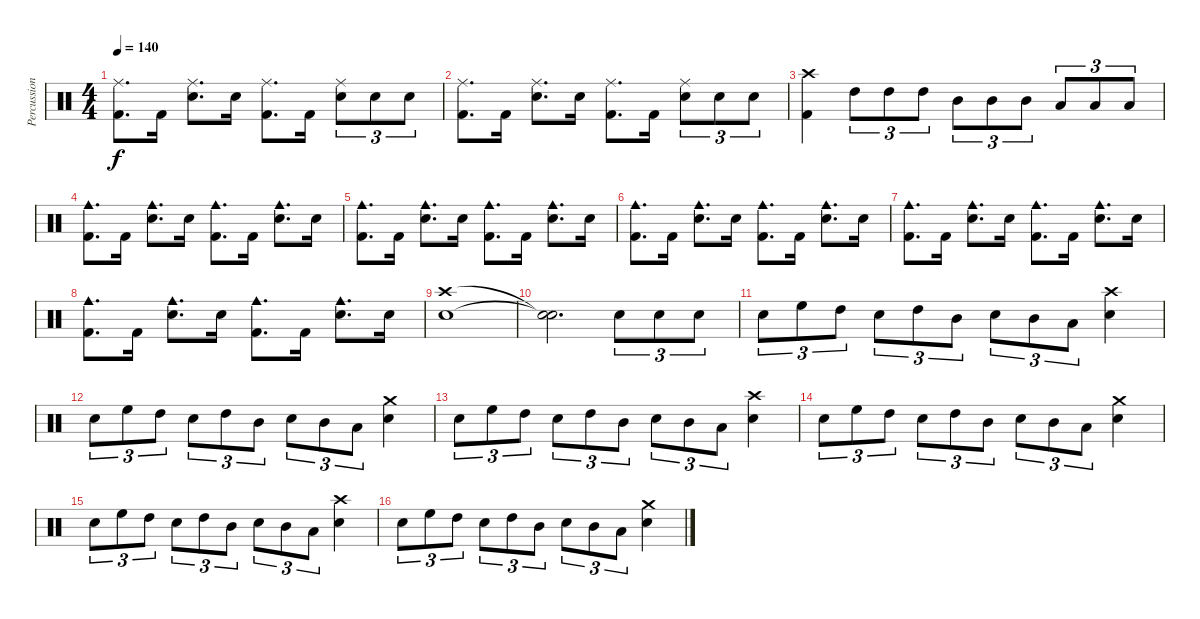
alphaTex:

\track ("Percussion" "Percussion") {instrument percussion}
\staff {score}
\articulation defaults
\ts (4 4)
\tempo 140
\clef neutral
\ks c
("Kick (hit) 2" "Ride (middle)").8{d dy f} "Kick (hit) 2".16 ("Electric Snare (hit)" "Ride (middle)").8{d} "Electric Snare (hit)".16 ("Kick (hit) 2" "Ride (middle)").8{d} "Kick (hit) 2".16 ("Electric Snare (hit)" "Ride (middle)").8{tu (3 2)} "Electric Snare (hit)".8{tu (3 2)} "Electric Snare (hit)".8{tu (3 2)} |
("Kick (hit) 2" "Ride (middle)").8{d} "Kick (hit) 2".16 ("Electric Snare (hit)" "Ride (middle)").8{d} "Electric Snare (hit)".16 ("Kick (hit) 2" "Ride (middle)").8{d} "Kick (hit) 2".16 ("Electric Snare (hit)" "Ride (middle)").8{tu (3 2)} "Electric Snare (hit)".8{tu (3 2)} "Electric Snare (hit)".8{tu (3 2)} |
("Kick (hit) 2" "Crash high (hit)").4 "High Tom (hit)".8{tu (3 2)} "High Tom (hit)".8{tu (3 2)} "High Tom (hit)".8{tu (3 2)} "Mid Tom (hit)".8{tu (3 2)} "Mid Tom (hit)".8{tu (3 2)} "Mid Tom (hit)".8{tu (3 2)} "Low Tom (hit)".8{tu (3 2)} "Low Tom (hit)".8{tu (3 2)} "Low Tom (hit)".8{tu (3 2)} |
("Kick (hit) 2" "Cowbell medium (hit)").8{d} "Kick (hit) 2".16 ("Electric Snare (hit)" "Cowbell medium (hit)").8{d} "Electric Snare (hit)".16 ("Kick (hit) 2" "Cowbell medium (hit)").8{d} "Kick (hit) 2".16 ("Electric Snare (hit)" "Cowbell medium (hit)").8{d} "Electric Snare (hit)".16 |
("Kick (hit) 2" "Cowbell medium (hit)").8{d} "Kick (hit) 2".16 ("Electric Snare (hit)" "Cowbell medium (hit)").8{d} "Electric Snare (hit)".16 ("Kick (hit) 2" "Cowbell medium (hit)").8{d} "Kick (hit) 2".16 ("Electric Snare (hit)" "Cowbell medium (hit)").8{d} "Electric Snare (hit)".16 |
("Kick (hit) 2" "Cowbell medium (hit)").8{d} "Kick (hit) 2".16 ("Electric Snare (hit)" "Cowbell medium (hit)").8{d} "Electric Snare (hit)".16 ("Kick (hit) 2" "Cowbell medium (hit)").8{d} "Kick (hit) 2".16 ("Electric Snare (hit)" "Cowbell medium (hit)").8{d} "Electric Snare (hit)".16 |
("Kick (hit) 2" "Cowbell medium (hit)").8{d} "Kick (hit) 2".16 ("Electric Snare (hit)" "Cowbell medium (hit)").8{d} "Electric Snare (hit)".16 ("Kick (hit) 2" "Cowbell medium (hit)").8{d} "Kick (hit) 2".16 ("Electric Snare (hit)" "Cowbell medium (hit)").8{d} "Electric Snare (hit)".16 |
("Kick (hit) 2" "Cowbell medium (hit)").8{d} "Kick (hit) 2".16 ("Electric Snare (hit)" "Cowbell medium (hit)").8{d} "Electric Snare (hit)".16 ("Kick (hit) 2" "Cowbell medium (hit)").8{d} "Kick (hit) 2".16 ("Electric Snare (hit)" "Cowbell medium (hit)").8{d} "Electric Snare (hit)".16 |
("Electric Snare (hit)" "Crash high (hit)").1 |
("Snare (hit)"{t} "Snare (hit)"{t}).2{d} "Electric Snare (hit)".8{tu (3 2)} "Electric Snare (hit)".8{tu (3 2)} "Electric Snare (hit)".8{tu (3 2)} |
"Electric Snare (hit)".8{tu (3 2)} "High Floor Tom (hit)".8{tu (3 2)} "High Tom (hit)".8{tu (3 2)} "Snare (hit) 2".8{tu (3 2)} "High Tom (hit)".8{tu (3 2)} "Mid Tom (hit)".8{tu (3 2)} "Electric Snare (hit)".8{tu (3 2)} "Mid Tom (hit)".8{tu (3 2)} "Low Tom (hit)".8{tu (3 2)} ("Electric Snare (hit)" "Crash high (hit)").4 |
"Electric Snare (hit)".8{tu (3 2)} "High Floor Tom (hit)".8{tu (3 2)} "High Tom (hit)".8{tu (3 2)} "Snare (hit) 2".8{tu (3 2)} "High Tom (hit)".8{tu (3 2)} "Mid Tom (hit)".8{tu (3 2)} "Electric Snare (hit)".8{tu (3 2)} "Mid Tom (hit)".8{tu (3 2)} "Low Tom (hit)".8{tu (3 2)} ("Electric Snare (hit)" "Crash medium (hit)").4 |
"Electric Snare (hit)".8{tu (3 2)} "High Floor Tom (hit)".8{tu (3 2)} "High Tom (hit)".8{tu (3 2)} "Snare (hit) 2".8{tu (3 2)} "High Tom (hit)".8{tu (3 2)} "Mid Tom (hit)".8{tu (3 2)} "Electric Snare (hit)".8{tu (3 2)} "Mid Tom (hit)".8{tu (3 2)} "Low Tom (hit)".8{tu (3 2)} ("Electric Snare (hit)" "Crash high (hit)").4 |
"Electric Snare (hit)".8{tu (3 2)} "High Floor Tom (hit)".8{tu (3 2)} "High Tom (hit)".8{tu (3 2)} "Snare (hit) 2".8{tu (3 2)} "High Tom (hit)".8{tu (3 2)} "Mid Tom (hit)".8{tu (3 2)} "Electric Snare (hit)".8{tu (3 2)} "Mid Tom (hit)".8{tu (3 2)} "Low Tom (hit)".8{tu (3 2)} ("Electric Snare (hit)" "Crash medium (hit)").4 |
"Electric Snare (hit)".8{tu (3 2)} "High Floor Tom (hit)".8{tu (3 2)} "High Tom (hit)".8{tu (3 2)} "Snare (hit) 2".8{tu (3 2)} "High Tom (hit)".8{tu (3 2)} "Mid Tom (hit)".8{tu (3 2)} "Electric Snare (hit)".8{tu (3 2)} "Mid Tom (hit)".8{tu (3 2)} "Low Tom (hit)".8{tu (3 2)} ("Electric Snare (hit)" "Crash high (hit)").4 |
"Electric Snare (hit)".8{tu (3 2)} "High Floor Tom (hit)".8{tu (3 2)} "High Tom (hit)".8{tu (3 2)} "Snare (hit) 2".8{tu (3 2)} "High Tom (hit)".8{tu (3 2)} "Mid Tom (hit)".8{tu (3 2)} "Electric Snare (hit)".8{tu (3 2)} "Mid Tom (hit)".8{tu (3 2)} "Low Tom (hit)".8{tu (3 2)} ("Electric Snare (hit)" "Crash medium (hit)").4
